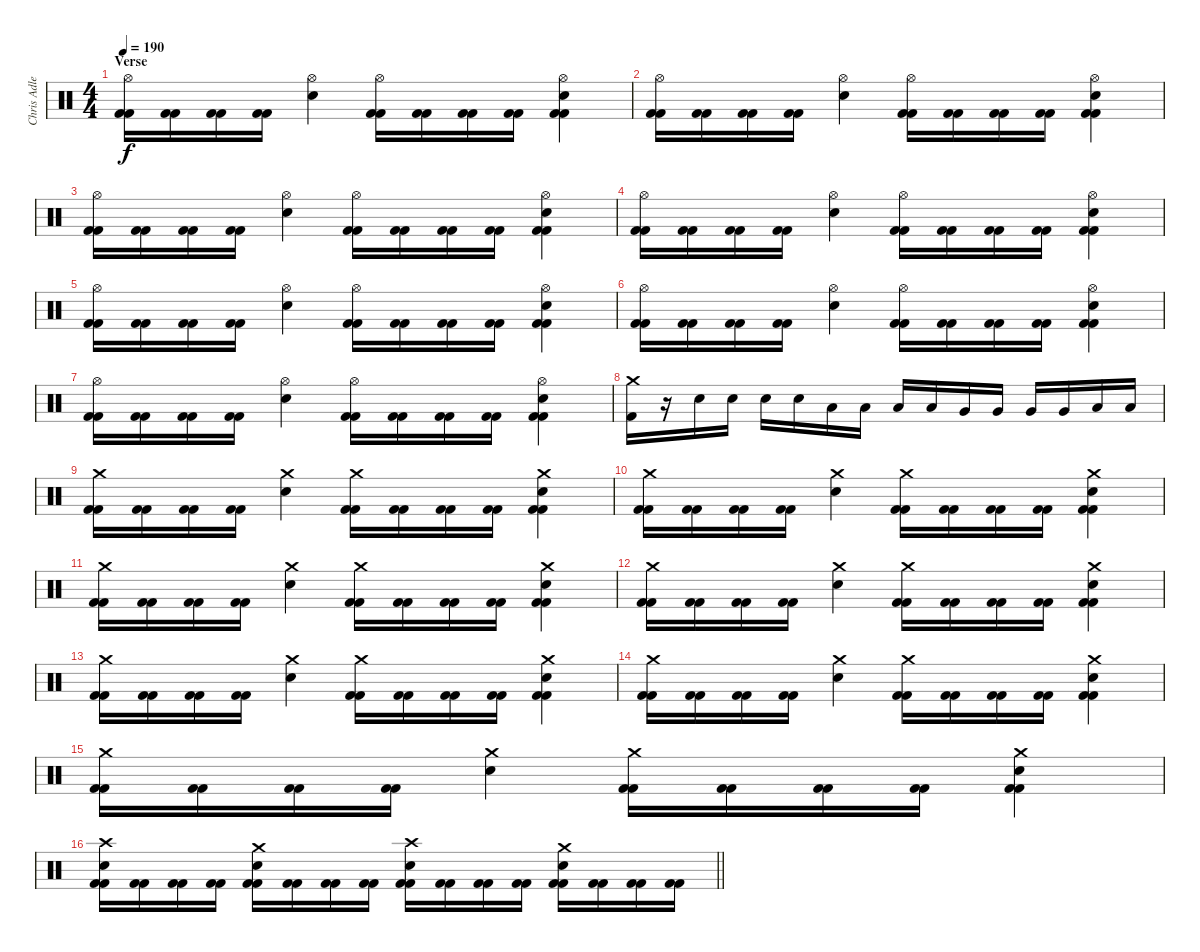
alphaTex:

\track ("Chris Adler" "Chris Adle") {instrument percussion}
\staff {score}
\articulation defaults
\ts (4 4)
\section ("" "Verse")
\tempo 190
\clef neutral
\ks c
("Hi-Hat (open)" "Kick (hit) 2" "Kick (hit) 2").16{dy f} ("Kick (hit) 2" "Kick (hit) 2").16 ("Kick (hit) 2" "Kick (hit) 2").16 ("Kick (hit) 2" "Kick (hit) 2").16 ("Hi-Hat (open)" "Snare (hit) 2").4 ("Hi-Hat (open)" "Kick (hit) 2" "Kick (hit) 2").16 ("Kick (hit) 2" "Kick (hit) 2").16 ("Kick (hit) 2" "Kick (hit) 2").16 ("Kick (hit) 2" "Kick (hit) 2").16 ("Hi-Hat (open)" "Snare (hit) 2" "Kick (hit) 2" "Kick (hit) 2").4 |
("Hi-Hat (open)" "Kick (hit) 2" "Kick (hit) 2").16 ("Kick (hit) 2" "Kick (hit) 2").16 ("Kick (hit) 2" "Kick (hit) 2").16 ("Kick (hit) 2" "Kick (hit) 2").16 ("Hi-Hat (open)" "Snare (hit) 2").4 ("Hi-Hat (open)" "Kick (hit) 2" "Kick (hit) 2").16 ("Kick (hit) 2" "Kick (hit) 2").16 ("Kick (hit) 2" "Kick (hit) 2").16 ("Kick (hit) 2" "Kick (hit) 2").16 ("Hi-Hat (open)" "Snare (hit) 2" "Kick (hit) 2" "Kick (hit) 2").4 |
("Hi-Hat (open)" "Kick (hit) 2" "Kick (hit) 2").16 ("Kick (hit) 2" "Kick (hit) 2").16 ("Kick (hit) 2" "Kick (hit) 2").16 ("Kick (hit) 2" "Kick (hit) 2").16 ("Hi-Hat (open)" "Snare (hit) 2").4 ("Hi-Hat (open)" "Kick (hit) 2" "Kick (hit) 2").16 ("Kick (hit) 2" "Kick (hit) 2").16 ("Kick (hit) 2" "Kick (hit) 2").16 ("Kick (hit) 2" "Kick (hit) 2").16 ("Hi-Hat (open)" "Snare (hit) 2" "Kick (hit) 2" "Kick (hit) 2").4 |
("Hi-Hat (open)" "Kick (hit) 2" "Kick (hit) 2").16 ("Kick (hit) 2" "Kick (hit) 2").16 ("Kick (hit) 2" "Kick (hit) 2").16 ("Kick (hit) 2" "Kick (hit) 2").16 ("Hi-Hat (open)" "Snare (hit) 2").4 ("Hi-Hat (open)" "Kick (hit) 2" "Kick (hit) 2").16 ("Kick (hit) 2" "Kick (hit) 2").16 ("Kick (hit) 2" "Kick (hit) 2").16 ("Kick (hit) 2" "Kick (hit) 2").16 ("Hi-Hat (open)" "Snare (hit) 2" "Kick (hit) 2" "Kick (hit) 2").4 |
("Hi-Hat (open)" "Kick (hit) 2" "Kick (hit) 2").16 ("Kick (hit) 2" "Kick (hit) 2").16 ("Kick (hit) 2" "Kick (hit) 2").16 ("Kick (hit) 2" "Kick (hit) 2").16 ("Hi-Hat (open)" "Snare (hit) 2").4 ("Hi-Hat (open)" "Kick (hit) 2" "Kick (hit) 2").16 ("Kick (hit) 2" "Kick (hit) 2").16 ("Kick (hit) 2" "Kick (hit) 2").16 ("Kick (hit) 2" "Kick (hit) 2").16 ("Hi-Hat (open)" "Snare (hit) 2" "Kick (hit) 2" "Kick (hit) 2").4 |
("Hi-Hat (open)" "Kick (hit) 2" "Kick (hit) 2").16 ("Kick (hit) 2" "Kick (hit) 2").16 ("Kick (hit) 2" "Kick (hit) 2").16 ("Kick (hit) 2" "Kick (hit) 2").16 ("Hi-Hat (open)" "Snare (hit) 2").4 ("Hi-Hat (open)" "Kick (hit) 2" "Kick (hit) 2").16 ("Kick (hit) 2" "Kick (hit) 2").16 ("Kick (hit) 2" "Kick (hit) 2").16 ("Kick (hit) 2" "Kick (hit) 2").16 ("Hi-Hat (open)" "Snare (hit) 2" "Kick (hit) 2" "Kick (hit) 2").4 |
("Hi-Hat (open)" "Kick (hit) 2" "Kick (hit) 2").16 ("Kick (hit) 2" "Kick (hit) 2").16 ("Kick (hit) 2" "Kick (hit) 2").16 ("Kick (hit) 2" "Kick (hit) 2").16 ("Hi-Hat (open)" "Snare (hit) 2").4 ("Hi-Hat (open)" "Kick (hit) 2" "Kick (hit) 2").16 ("Kick (hit) 2" "Kick (hit) 2").16 ("Kick (hit) 2" "Kick (hit) 2").16 ("Kick (hit) 2" "Kick (hit) 2").16 ("Hi-Hat (open)" "Snare (hit) 2" "Kick (hit) 2" "Kick (hit) 2").4 |
("Kick (hit) 2" "Crash medium (hit)").16 r.16 "Snare (hit) 2".16 "Snare (hit) 2".16 "Snare (hit) 2".16 "Snare (hit) 2".16 "Low Tom (hit)".16 "Low Tom (hit)".16 "Low Tom (hit)".16 "Low Tom (hit)".16 "Very Low Tom (hit)".16 "Very Low Tom (hit)".16 "Very Low Tom (hit)".16 "Very Low Tom (hit)".16 "Low Floor Tom (hit)".16 "Low Floor Tom (hit)".16 |
("Crash medium (hit)" "Kick (hit) 2" "Kick (hit) 2").16 ("Kick (hit) 2" "Kick (hit) 2").16 ("Kick (hit) 2" "Kick (hit) 2").16 ("Kick (hit) 2" "Kick (hit) 2").16 ("Crash medium (hit)" "Snare (hit) 2").4 ("Crash medium (hit)" "Kick (hit) 2" "Kick (hit) 2").16 ("Kick (hit) 2" "Kick (hit) 2").16 ("Kick (hit) 2" "Kick (hit) 2").16 ("Kick (hit) 2" "Kick (hit) 2").16 ("Crash medium (hit)" "Snare (hit) 2" "Kick (hit) 2" "Kick (hit) 2").4 |
("Crash medium (hit)" "Kick (hit) 2" "Kick (hit) 2").16 ("Kick (hit) 2" "Kick (hit) 2").16 ("Kick (hit) 2" "Kick (hit) 2").16 ("Kick (hit) 2" "Kick (hit) 2").16 ("Crash medium (hit)" "Snare (hit) 2").4 ("Crash medium (hit)" "Kick (hit) 2" "Kick (hit) 2").16 ("Kick (hit) 2" "Kick (hit) 2").16 ("Kick (hit) 2" "Kick (hit) 2").16 ("Kick (hit) 2" "Kick (hit) 2").16 ("Crash medium (hit)" "Snare (hit) 2" "Kick (hit) 2" "Kick (hit) 2").4 |
("Crash medium (hit)" "Kick (hit) 2" "Kick (hit) 2").16 ("Kick (hit) 2" "Kick (hit) 2").16 ("Kick (hit) 2" "Kick (hit) 2").16 ("Kick (hit) 2" "Kick (hit) 2").16 ("Crash medium (hit)" "Snare (hit) 2").4 ("Crash medium (hit)" "Kick (hit) 2" "Kick (hit) 2").16 ("Kick (hit) 2" "Kick (hit) 2").16 ("Kick (hit) 2" "Kick (hit) 2").16 ("Kick (hit) 2" "Kick (hit) 2").16 ("Crash medium (hit)" "Snare (hit) 2" "Kick (hit) 2" "Kick (hit) 2").4 |
("Crash medium (hit)" "Kick (hit) 2" "Kick (hit) 2").16 ("Kick (hit) 2" "Kick (hit) 2").16 ("Kick (hit) 2" "Kick (hit) 2").16 ("Kick (hit) 2" "Kick (hit) 2").16 ("Crash medium (hit)" "Snare (hit) 2").4 ("Crash medium (hit)" "Kick (hit) 2" "Kick (hit) 2").16 ("Kick (hit) 2" "Kick (hit) 2").16 ("Kick (hit) 2" "Kick (hit) 2").16 ("Kick (hit) 2" "Kick (hit) 2").16 ("Crash medium (hit)" "Snare (hit) 2" "Kick (hit) 2" "Kick (hit) 2").4 |
("Crash medium (hit)" "Kick (hit) 2" "Kick (hit) 2").16 ("Kick (hit) 2" "Kick (hit) 2").16 ("Kick (hit) 2" "Kick (hit) 2").16 ("Kick (hit) 2" "Kick (hit) 2").16 ("Crash medium (hit)" "Snare (hit) 2").4 ("Crash medium (hit)" "Kick (hit) 2" "Kick (hit) 2").16 ("Kick (hit) 2" "Kick (hit) 2").16 ("Kick (hit) 2" "Kick (hit) 2").16 ("Kick (hit) 2" "Kick (hit) 2").16 ("Crash medium (hit)" "Snare (hit) 2" "Kick (hit) 2" "Kick (hit) 2").4 |
("Crash medium (hit)" "Kick (hit) 2" "Kick (hit) 2").16 ("Kick (hit) 2" "Kick (hit) 2").16 ("Kick (hit) 2" "Kick (hit) 2").16 ("Kick (hit) 2" "Kick (hit) 2").16 ("Crash medium (hit)" "Snare (hit) 2").4 ("Crash medium (hit)" "Kick (hit) 2" "Kick (hit) 2").16 ("Kick (hit) 2" "Kick (hit) 2").16 ("Kick (hit) 2" "Kick (hit) 2").16 ("Kick (hit) 2" "Kick (hit) 2").16 ("Crash medium (hit)" "Snare (hit) 2" "Kick (hit) 2" "Kick (hit) 2").4 |
("Crash medium (hit)" "Kick (hit) 2" "Kick (hit) 2").16 ("Kick (hit) 2" "Kick (hit) 2").16 ("Kick (hit) 2" "Kick (hit) 2").16 ("Kick (hit) 2" "Kick (hit) 2").16 ("Crash medium (hit)" "Snare (hit) 2").4 ("Crash medium (hit)" "Kick (hit) 2" "Kick (hit) 2").16 ("Kick (hit) 2" "Kick (hit) 2").16 ("Kick (hit) 2" "Kick (hit) 2").16 ("Kick (hit) 2" "Kick (hit) 2").16 ("Crash medium (hit)" "Snare (hit) 2" "Kick (hit) 2" "Kick (hit) 2").4 |
\barLineRight lightlight
("Crash high (hit)" "Snare (hit) 2" "Kick (hit) 2" "Kick (hit) 2").16 ("Kick (hit) 2" "Kick (hit) 2").16 ("Kick (hit) 2" "Kick (hit) 2").16 ("Kick (hit) 2" "Kick (hit) 2").16 ("Crash medium (hit)" "Snare (hit) 2" "Kick (hit) 2" "Kick (hit) 2").16 ("Kick (hit) 2" "Kick (hit) 2").16 ("Kick (hit) 2" "Kick (hit) 2").16 ("Kick (hit) 2" "Kick (hit) 2").16 ("Crash high (hit)" "Snare (hit) 2" "Kick (hit) 2" "Kick (hit) 2").16 ("Kick (hit) 2" "Kick (hit) 2").16 ("Kick (hit) 2" "Kick (hit) 2").16 ("Kick (hit) 2" "Kick (hit) 2").16 ("Crash medium (hit)" "Snare (hit) 2" "Kick (hit) 2" "Kick (hit) 2").16 ("Kick (hit) 2" "Kick (hit) 2").16 ("Kick (hit) 2" "Kick (hit) 2").16 ("Kick (hit) 2" "Kick (hit) 2").16
